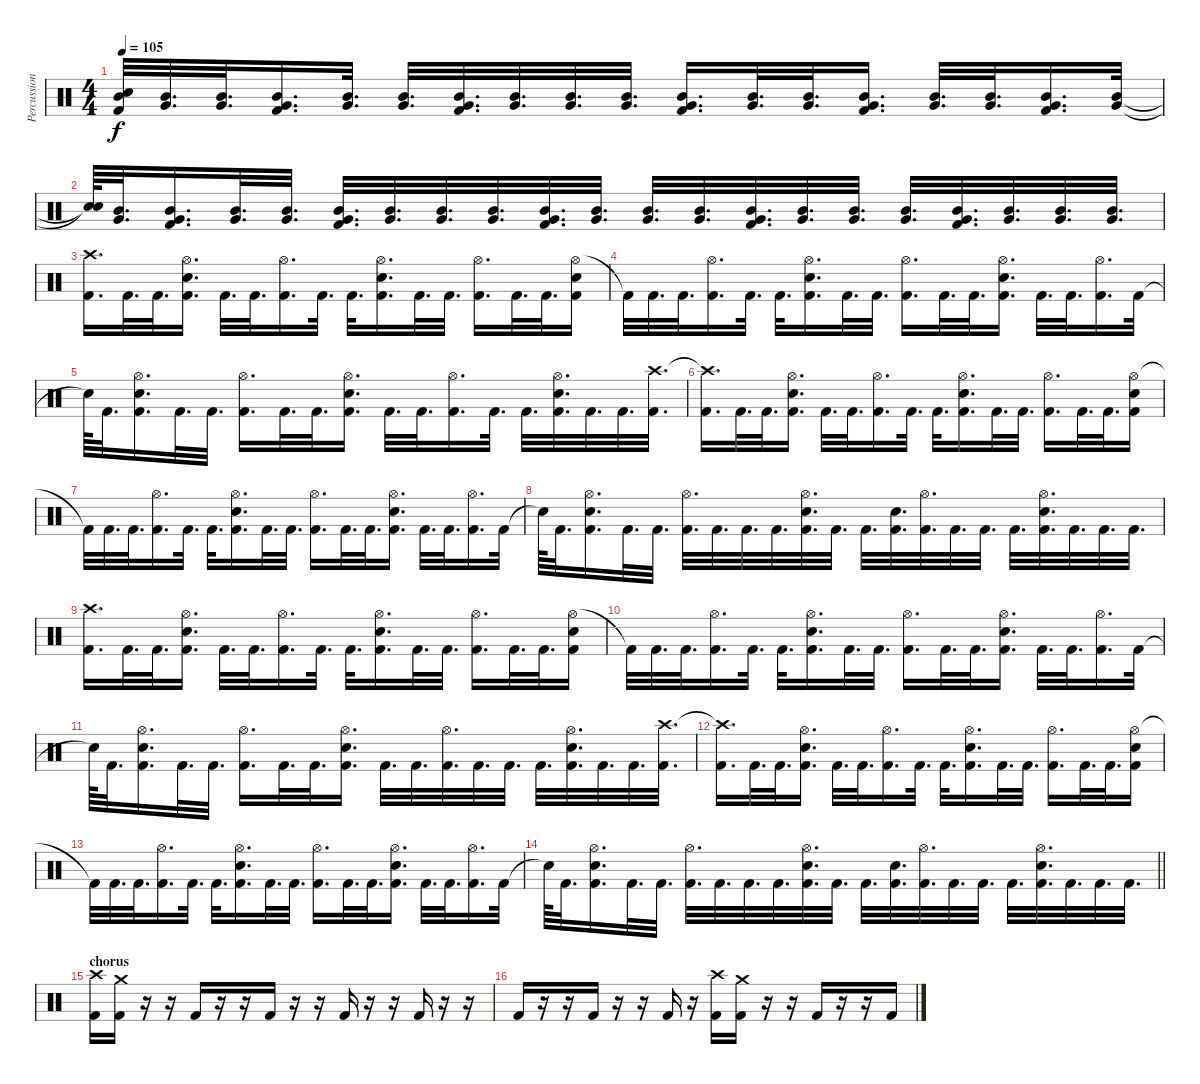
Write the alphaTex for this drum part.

\track ("Percussions" "Percussion") {instrument percussion}
\staff {score}
\articulation defaults
\ts (4 4)
\tempo 105
\clef neutral
\ks c
("Mid Tom (hit)"{t} "Snare (hit)"{t} "Kick (hit) 2"{t}).32{dy f} ("Mid Tom (hit)" "Very Low Tom (hit)").32{d} ("Mid Tom (hit)" "Very Low Tom (hit)").32{d} ("Mid Tom (hit)" "Very Low Tom (hit)" "Kick (hit) 2").16{d} ("Mid Tom (hit)" "Very Low Tom (hit)").32{d} ("Mid Tom (hit)" "Very Low Tom (hit)").32{d} ("Mid Tom (hit)" "Very Low Tom (hit)" "Kick (hit) 2").32{d} ("Mid Tom (hit)" "Very Low Tom (hit)").32{d} ("Mid Tom (hit)" "Very Low Tom (hit)").32{d} ("Mid Tom (hit)" "Very Low Tom (hit)").32{d} ("Mid Tom (hit)" "Very Low Tom (hit)" "Kick (hit) 2").16{d} ("Mid Tom (hit)" "Very Low Tom (hit)").32{d} ("Mid Tom (hit)" "Very Low Tom (hit)").32{d} ("Mid Tom (hit)" "Very Low Tom (hit)" "Kick (hit) 2").16{d} ("Mid Tom (hit)" "Very Low Tom (hit)").32{d} ("Mid Tom (hit)" "Very Low Tom (hit)").32{d} ("Mid Tom (hit)" "Very Low Tom (hit)" "Kick (hit) 2").16{d} ("Mid Tom (hit)" "Very Low Tom (hit)").32 |
("Snare (hit)"{t} "Snare (hit)"{t}).64 ("Mid Tom (hit)" "Very Low Tom (hit)").32{d} ("Mid Tom (hit)" "Very Low Tom (hit)" "Kick (hit) 2").16{d} ("Mid Tom (hit)" "Very Low Tom (hit)").32{d} ("Mid Tom (hit)" "Very Low Tom (hit)").32{d} ("Mid Tom (hit)" "Very Low Tom (hit)" "Kick (hit) 2").32{d} ("Mid Tom (hit)" "Very Low Tom (hit)").32{d} ("Mid Tom (hit)" "Very Low Tom (hit)").32{d} ("Mid Tom (hit)" "Very Low Tom (hit)").32{d} ("Mid Tom (hit)" "Very Low Tom (hit)" "Kick (hit) 2").32{d} ("Mid Tom (hit)" "Very Low Tom (hit)").32{d} ("Mid Tom (hit)" "Very Low Tom (hit)").32{d} ("Mid Tom (hit)" "Very Low Tom (hit)").32{d} ("Mid Tom (hit)" "Very Low Tom (hit)" "Kick (hit) 2").32{d} ("Mid Tom (hit)" "Very Low Tom (hit)").32{d} ("Mid Tom (hit)" "Very Low Tom (hit)").32{d} ("Mid Tom (hit)" "Very Low Tom (hit)").32{d} ("Mid Tom (hit)" "Very Low Tom (hit)" "Kick (hit) 2").32{d} ("Mid Tom (hit)" "Very Low Tom (hit)").32{d} ("Mid Tom (hit)" "Very Low Tom (hit)").32{d} ("Mid Tom (hit)" "Very Low Tom (hit)").32{d} |
("Crash high (hit)" "Kick (hit) 2").16{d} "Kick (hit) 2".32{d} "Kick (hit) 2".32{d} ("Hi-Hat (open)" "Snare (hit) 2" "Kick (hit) 2").16{d} "Kick (hit) 2".32{d} "Kick (hit) 2".32{d} ("Hi-Hat (open)" "Kick (hit) 2").16{d} "Kick (hit) 2".32{d} "Kick (hit) 2".32{d} ("Hi-Hat (open)" "Snare (hit) 2" "Kick (hit) 2").16{d} "Kick (hit) 2".32{d} "Kick (hit) 2".32{d} ("Hi-Hat (open)" "Kick (hit) 2").16{d} "Kick (hit) 2".32{d} "Kick (hit) 2".32{d} ("Hi-Hat (open)" "Snare (hit) 2" "Kick (hit) 2").16 |
"Kick (hit) 2"{t}.32 "Kick (hit) 2".32{d} "Kick (hit) 2".32{d} ("Hi-Hat (open)" "Kick (hit) 2").16{d} "Kick (hit) 2".32{d} "Kick (hit) 2".32{d} ("Hi-Hat (open)" "Snare (hit) 2" "Kick (hit) 2").16{d} "Kick (hit) 2".32{d} "Kick (hit) 2".32{d} ("Hi-Hat (open)" "Kick (hit) 2").16{d} "Kick (hit) 2".32{d} "Kick (hit) 2".32{d} ("Hi-Hat (open)" "Snare (hit) 2" "Kick (hit) 2").16{d} "Kick (hit) 2".32{d} "Kick (hit) 2".32{d} ("Hi-Hat (open)" "Kick (hit) 2").16{d} "Kick (hit) 2".32 |
"Snare (hit)"{t}.64 "Kick (hit) 2".32{d} ("Hi-Hat (open)" "Snare (hit) 2" "Kick (hit) 2").16{d} "Kick (hit) 2".32{d} "Kick (hit) 2".32{d} ("Hi-Hat (open)" "Kick (hit) 2").16{d} "Kick (hit) 2".32{d} "Kick (hit) 2".32{d} ("Hi-Hat (open)" "Snare (hit) 2" "Kick (hit) 2").16{d} "Kick (hit) 2".32{d} "Kick (hit) 2".32{d} ("Hi-Hat (open)" "Kick (hit) 2").16{d} "Kick (hit) 2".32{d} "Kick (hit) 2".32{d} ("Hi-Hat (open)" "Snare (hit) 2" "Kick (hit) 2").32{d} "Kick (hit) 2".32{d} "Kick (hit) 2".32{d} ("Crash high (hit)" "Kick (hit) 2").32{d} |
("Crash high (hit)"{t} "Kick (hit) 2").16{d} "Kick (hit) 2".32{d} "Kick (hit) 2".32{d} ("Hi-Hat (open)" "Snare (hit) 2" "Kick (hit) 2").16{d} "Kick (hit) 2".32{d} "Kick (hit) 2".32{d} ("Hi-Hat (open)" "Kick (hit) 2").16{d} "Kick (hit) 2".32{d} "Kick (hit) 2".32{d} ("Hi-Hat (open)" "Snare (hit) 2" "Kick (hit) 2").16{d} "Kick (hit) 2".32{d} "Kick (hit) 2".32{d} ("Hi-Hat (open)" "Kick (hit) 2").16{d} "Kick (hit) 2".32{d} "Kick (hit) 2".32{d} ("Hi-Hat (open)" "Snare (hit) 2" "Kick (hit) 2").16 |
"Kick (hit) 2"{t}.32 "Kick (hit) 2".32{d} "Kick (hit) 2".32{d} ("Hi-Hat (open)" "Kick (hit) 2").16{d} "Kick (hit) 2".32{d} "Kick (hit) 2".32{d} ("Hi-Hat (open)" "Snare (hit) 2" "Kick (hit) 2").16{d} "Kick (hit) 2".32{d} "Kick (hit) 2".32{d} ("Hi-Hat (open)" "Kick (hit) 2").16{d} "Kick (hit) 2".32{d} "Kick (hit) 2".32{d} ("Hi-Hat (open)" "Snare (hit) 2" "Kick (hit) 2").16{d} "Kick (hit) 2".32{d} "Kick (hit) 2".32{d} ("Hi-Hat (open)" "Kick (hit) 2").16{d} "Kick (hit) 2".32 |
"Snare (hit)"{t}.64 "Kick (hit) 2".32{d} ("Hi-Hat (open)" "Snare (hit) 2" "Kick (hit) 2").16{d} "Kick (hit) 2".32{d} "Kick (hit) 2".32{d} ("Hi-Hat (open)" "Kick (hit) 2").32{d} "Kick (hit) 2".32{d} "Kick (hit) 2".32{d} "Kick (hit) 2".32{d} ("Hi-Hat (open)" "Snare (hit) 2" "Kick (hit) 2").32{d} "Kick (hit) 2".32{d} "Kick (hit) 2".32{d} ("Snare (hit) 2" "Kick (hit) 2").32{d} ("Hi-Hat (open)" "Kick (hit) 2").32{d} "Kick (hit) 2".32{d} "Kick (hit) 2".32{d} "Kick (hit) 2".32{d} ("Hi-Hat (open)" "Snare (hit) 2" "Kick (hit) 2").32{d} "Kick (hit) 2".32{d} "Kick (hit) 2".32{d} "Kick (hit) 2".32{d} |
("Crash high (hit)" "Kick (hit) 2").16{d} "Kick (hit) 2".32{d} "Kick (hit) 2".32{d} ("Hi-Hat (open)" "Snare (hit) 2" "Kick (hit) 2").16{d} "Kick (hit) 2".32{d} "Kick (hit) 2".32{d} ("Hi-Hat (open)" "Kick (hit) 2").16{d} "Kick (hit) 2".32{d} "Kick (hit) 2".32{d} ("Hi-Hat (open)" "Snare (hit) 2" "Kick (hit) 2").16{d} "Kick (hit) 2".32{d} "Kick (hit) 2".32{d} ("Hi-Hat (open)" "Kick (hit) 2").16{d} "Kick (hit) 2".32{d} "Kick (hit) 2".32{d} ("Hi-Hat (open)" "Snare (hit) 2" "Kick (hit) 2").16 |
"Kick (hit) 2"{t}.32 "Kick (hit) 2".32{d} "Kick (hit) 2".32{d} ("Hi-Hat (open)" "Kick (hit) 2").16{d} "Kick (hit) 2".32{d} "Kick (hit) 2".32{d} ("Hi-Hat (open)" "Snare (hit) 2" "Kick (hit) 2").16{d} "Kick (hit) 2".32{d} "Kick (hit) 2".32{d} ("Hi-Hat (open)" "Kick (hit) 2").16{d} "Kick (hit) 2".32{d} "Kick (hit) 2".32{d} ("Hi-Hat (open)" "Snare (hit) 2" "Kick (hit) 2").16{d} "Kick (hit) 2".32{d} "Kick (hit) 2".32{d} ("Hi-Hat (open)" "Kick (hit) 2").16{d} "Kick (hit) 2".32 |
"Snare (hit)"{t}.64 "Kick (hit) 2".32{d} ("Hi-Hat (open)" "Snare (hit) 2" "Kick (hit) 2").16{d} "Kick (hit) 2".32{d} "Kick (hit) 2".32{d} ("Hi-Hat (open)" "Kick (hit) 2").16{d} "Kick (hit) 2".32{d} "Kick (hit) 2".32{d} ("Hi-Hat (open)" "Snare (hit) 2" "Kick (hit) 2").16{d} "Kick (hit) 2".32{d} "Kick (hit) 2".32{d} ("Hi-Hat (open)" "Kick (hit) 2").32{d} "Kick (hit) 2".32{d} "Kick (hit) 2".32{d} "Kick (hit) 2".32{d} ("Hi-Hat (open)" "Snare (hit) 2" "Kick (hit) 2").32{d} "Kick (hit) 2".32{d} "Kick (hit) 2".32{d} ("Crash high (hit)" "Kick (hit) 2").32{d} |
("Crash high (hit)"{t} "Kick (hit) 2").16{d} "Kick (hit) 2".32{d} "Kick (hit) 2".32{d} ("Hi-Hat (open)" "Snare (hit) 2" "Kick (hit) 2").16{d} "Kick (hit) 2".32{d} "Kick (hit) 2".32{d} ("Hi-Hat (open)" "Kick (hit) 2").16{d} "Kick (hit) 2".32{d} "Kick (hit) 2".32{d} ("Hi-Hat (open)" "Snare (hit) 2" "Kick (hit) 2").16{d} "Kick (hit) 2".32{d} "Kick (hit) 2".32{d} ("Hi-Hat (open)" "Kick (hit) 2").16{d} "Kick (hit) 2".32{d} "Kick (hit) 2".32{d} ("Hi-Hat (open)" "Snare (hit) 2" "Kick (hit) 2").16 |
"Kick (hit) 2"{t}.32 "Kick (hit) 2".32{d} "Kick (hit) 2".32{d} ("Hi-Hat (open)" "Kick (hit) 2").16{d} "Kick (hit) 2".32{d} "Kick (hit) 2".32{d} ("Hi-Hat (open)" "Snare (hit) 2" "Kick (hit) 2").16{d} "Kick (hit) 2".32{d} "Kick (hit) 2".32{d} ("Hi-Hat (open)" "Kick (hit) 2").16{d} "Kick (hit) 2".32{d} "Kick (hit) 2".32{d} ("Hi-Hat (open)" "Snare (hit) 2" "Kick (hit) 2").16{d} "Kick (hit) 2".32{d} "Kick (hit) 2".32{d} ("Hi-Hat (open)" "Kick (hit) 2").16{d} "Kick (hit) 2".32 |
\barLineRight lightlight "Snare (hit)"{t}.64 "Kick (hit) 2".32{d}
("Hi-Hat (open)" "Snare (hit) 2" "Kick (hit) 2").16{d} "Kick (hit) 2".32{d} "Kick (hit) 2".32{d} ("Hi-Hat (open)" "Kick (hit) 2").32{d} "Kick (hit) 2".32{d} "Kick (hit) 2".32{d} "Kick (hit) 2".32{d} ("Hi-Hat (open)" "Snare (hit) 2" "Kick (hit) 2").32{d} "Kick (hit) 2".32{d} "Kick (hit) 2".32{d} ("Snare (hit) 2" "Kick (hit) 2").32{d} ("Hi-Hat (open)" "Kick (hit) 2").32{d} "Kick (hit) 2".32{d} "Kick (hit) 2".32{d} "Kick (hit) 2".32{d} ("Hi-Hat (open)" "Snare (hit) 2" "Kick (hit) 2").32{d} "Kick (hit) 2".32{d} "Kick (hit) 2".32{d} "Kick (hit) 2".32{d} |
\section ("" "chorus")
("Crash high (hit)" "Kick (hit) 2").16 ("Crash medium (hit)" "Kick (hit) 2").16 r.16 r.16 "Kick (hit) 2".16 r.16 r.16 "Kick (hit) 2".16 r.16 r.16 "Kick (hit) 2".16 r.16 r.16 "Kick (hit) 2".16 r.16 r.16 |
"Kick (hit) 2".16 r.16 r.16 "Kick (hit) 2".16 r.16 r.16 "Kick (hit) 2".16 r.16 ("Crash high (hit)" "Kick (hit) 2").16 ("Crash medium (hit)" "Kick (hit) 2").16 r.16 r.16 "Kick (hit) 2".16 r.16 r.16 "Kick (hit) 2".16
